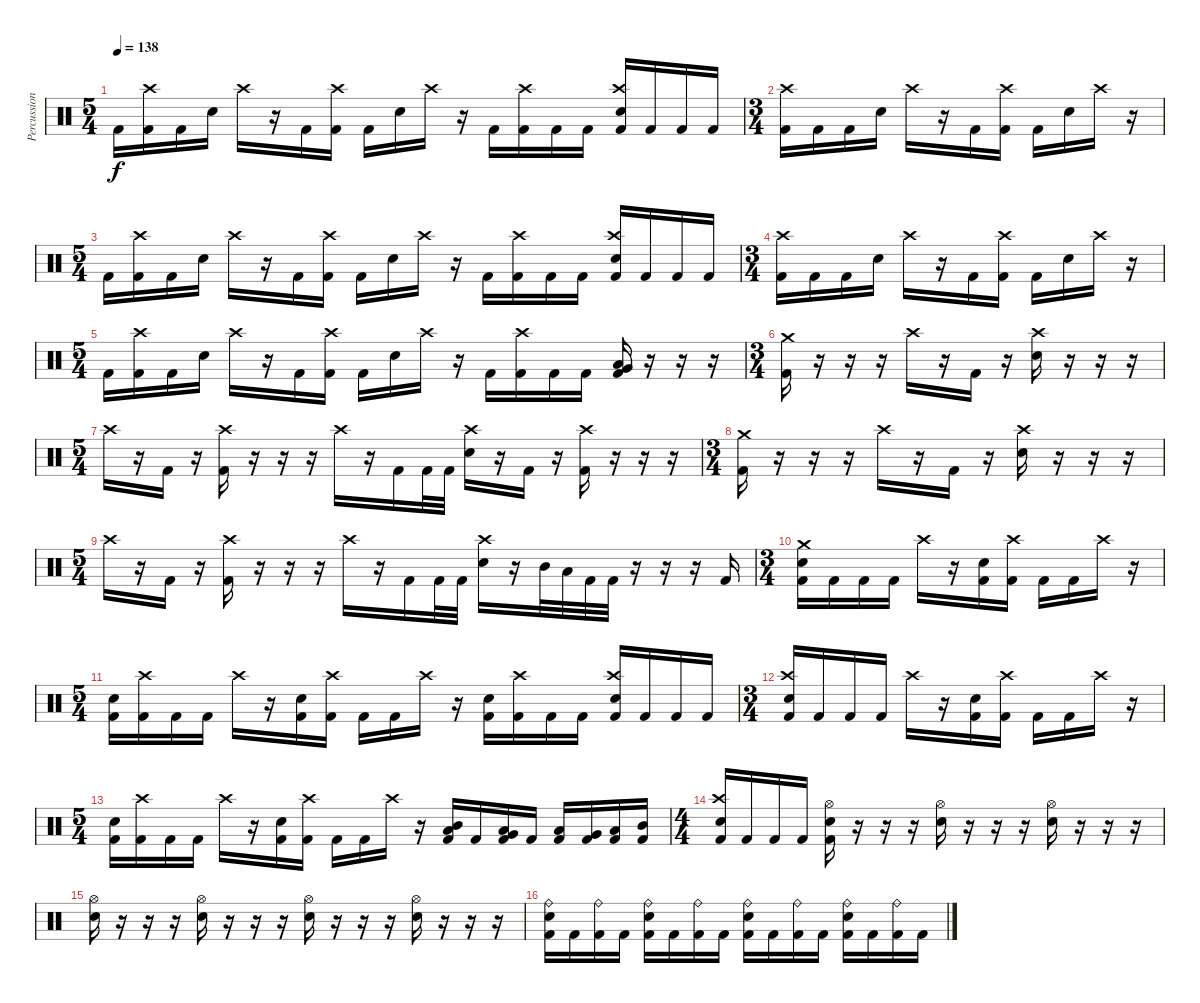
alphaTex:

\track ("Percussion" "Percussion") {instrument percussion}
\staff {score}
\articulation defaults
\ts (5 4)
\tempo 138
\clef neutral
\ks c "Kick (hit) 2".16{dy f}
("Crash high (hit)" "Kick (hit) 2").16 "Kick (hit) 2".16 "Electric Snare (hit)".16 "Crash high (hit)".16 r.16 "Kick (hit) 2".16 ("Crash high (hit)" "Kick (hit) 2").16 "Kick (hit) 2".16 "Electric Snare (hit)".16 "Crash high (hit)".16 r.16 "Kick (hit) 2".16 ("Crash high (hit)" "Kick (hit) 2").16 "Kick (hit) 2".16 "Kick (hit) 2".16 ("Crash high (hit)" "Electric Snare (hit)" "Kick (hit) 2").16 "Kick (hit) 2".16 "Kick (hit) 2".16 "Kick (hit) 2".16 |
\ts (3 4)
("Crash high (hit)" "Kick (hit) 2").16 "Kick (hit) 2".16 "Kick (hit) 2".16 "Electric Snare (hit)".16 "Crash high (hit)".16 r.16 "Kick (hit) 2".16 ("Crash high (hit)" "Kick (hit) 2").16 "Kick (hit) 2".16 "Electric Snare (hit)".16 "Crash high (hit)".16 r.16 |
\ts (5 4)
"Kick (hit) 2".16 ("Crash high (hit)" "Kick (hit) 2").16 "Kick (hit) 2".16 "Electric Snare (hit)".16 "Crash high (hit)".16 r.16 "Kick (hit) 2".16 ("Crash high (hit)" "Kick (hit) 2").16 "Kick (hit) 2".16 "Electric Snare (hit)".16 "Crash high (hit)".16 r.16 "Kick (hit) 2".16 ("Crash high (hit)" "Kick (hit) 2").16 "Kick (hit) 2".16 "Kick (hit) 2".16 ("Crash high (hit)" "Electric Snare (hit)" "Kick (hit) 2").16 "Kick (hit) 2".16 "Kick (hit) 2".16 "Kick (hit) 2".16 |
\ts (3 4)
("Crash high (hit)" "Kick (hit) 2").16 "Kick (hit) 2".16 "Kick (hit) 2".16 "Electric Snare (hit)".16 "Crash high (hit)".16 r.16 "Kick (hit) 2".16 ("Crash high (hit)" "Kick (hit) 2").16 "Kick (hit) 2".16 "Electric Snare (hit)".16 "Crash high (hit)".16 r.16 |
\ts (5 4)
"Kick (hit) 2".16 ("Crash high (hit)" "Kick (hit) 2").16 "Kick (hit) 2".16 "Electric Snare (hit)".16 "Crash high (hit)".16 r.16 "Kick (hit) 2".16 ("Crash high (hit)" "Kick (hit) 2").16 "Kick (hit) 2".16 "Electric Snare (hit)".16 "Crash high (hit)".16 r.16 "Kick (hit) 2".16 ("Crash high (hit)" "Kick (hit) 2").16 "Kick (hit) 2".16 "Kick (hit) 2".16 ("Very Low Tom (hit)" "Low Floor Tom (hit)" "Kick (hit) 2").16 r.16 r.16 r.16 |
\ts (3 4)
("Crash medium (hit)" "Kick (hit) 2").16 r.16 r.16 r.16 "Crash high (hit)".16 r.16 "Kick (hit) 2".16 r.16 ("Crash high (hit)" "Electric Snare (hit)").16 r.16 r.16 r.16 |
\ts (5 4)
"Crash high (hit)".16 r.16 "Kick (hit) 2".16 r.16 ("Crash high (hit)" "Kick (hit) 2").16 r.16 r.16 r.16 "Crash high (hit)".16 r.16 "Kick (hit) 2".16 "Kick (hit) 2".32 "Kick (hit) 2".32 ("Crash high (hit)" "Electric Snare (hit)").16 r.16 "Kick (hit) 2".16 r.16 ("Crash high (hit)" "Kick (hit) 2").16 r.16 r.16 r.16 |
\ts (3 4)
("Crash medium (hit)" "Kick (hit) 2").16 r.16 r.16 r.16 "Crash high (hit)".16 r.16 "Kick (hit) 2".16 r.16 ("Crash high (hit)" "Electric Snare (hit)").16 r.16 r.16 r.16 |
\ts (5 4)
"Crash high (hit)".16 r.16 "Kick (hit) 2".16 r.16 ("Crash high (hit)" "Kick (hit) 2").16 r.16 r.16 r.16 "Crash high (hit)".16 r.16 "Kick (hit) 2".16 "Kick (hit) 2".32 "Kick (hit) 2".32 ("Crash high (hit)" "Electric Snare (hit)").16 r.16 "Mid Tom (hit)".32 "Low Tom (hit)".32 "Kick (hit) 2".32 "Kick (hit) 2".32 r.16 r.16 r.16 "Kick (hit) 2".16 |
\ts (3 4)
("Crash medium (hit)" "Electric Snare (hit)" "Kick (hit) 2").16 "Kick (hit) 2".16 "Kick (hit) 2".16 "Kick (hit) 2".16 "Crash high (hit)".16 r.16 ("Electric Snare (hit)" "Kick (hit) 2").16 ("Crash high (hit)" "Kick (hit) 2").16 "Kick (hit) 2".16 "Kick (hit) 2".16 "Crash high (hit)".16 r.16 |
\ts (5 4)
("Electric Snare (hit)" "Kick (hit) 2").16 ("Crash high (hit)" "Kick (hit) 2").16 "Kick (hit) 2".16 "Kick (hit) 2".16 "Crash high (hit)".16 r.16 ("Electric Snare (hit)" "Kick (hit) 2").16 ("Crash high (hit)" "Kick (hit) 2").16 "Kick (hit) 2".16 "Kick (hit) 2".16 "Crash high (hit)".16 r.16 ("Electric Snare (hit)" "Kick (hit) 2").16 ("Crash high (hit)" "Kick (hit) 2").16 "Kick (hit) 2".16 "Kick (hit) 2".16 ("Crash high (hit)" "Electric Snare (hit)" "Kick (hit) 2").16 "Kick (hit) 2".16 "Kick (hit) 2".16 "Kick (hit) 2".16 |
\ts (3 4)
("Crash high (hit)" "Electric Snare (hit)" "Kick (hit) 2").16 "Kick (hit) 2".16 "Kick (hit) 2".16 "Kick (hit) 2".16 "Crash high (hit)".16 r.16 ("Electric Snare (hit)" "Kick (hit) 2").16 ("Crash high (hit)" "Kick (hit) 2").16 "Kick (hit) 2".16 "Kick (hit) 2".16 "Crash high (hit)".16 r.16 |
\ts (5 4)
("Electric Snare (hit)" "Kick (hit) 2").16 ("Crash high (hit)" "Kick (hit) 2").16 "Kick (hit) 2".16 "Kick (hit) 2".16 "Crash high (hit)".16 r.16 ("Electric Snare (hit)" "Kick (hit) 2").16 ("Crash high (hit)" "Kick (hit) 2").16 "Kick (hit) 2".16 "Kick (hit) 2".16 "Crash high (hit)".16 r.16 ("Mid Tom (hit)" "Low Tom (hit)" "Kick (hit) 2").16 "Kick (hit) 2".16 ("Low Tom (hit)" "Very Low Tom (hit)" "Kick (hit) 2").16 "Kick (hit) 2".16 ("Low Floor Tom (hit)" "Kick (hit) 2").16 ("Very Low Tom (hit)" "Kick (hit) 2").16 ("Low Tom (hit)" "Kick (hit) 2").16 ("Mid Tom (hit)" "Kick (hit) 2").16 |
\ts (4 4)
("Crash high (hit)" "Electric Snare (hit)" "Kick (hit) 2").16 "Kick (hit) 2".16 "Kick (hit) 2".16 "Kick (hit) 2".16 ("Hi-Hat (open)" "Electric Snare (hit)" "Kick (hit) 2").16 r.16 r.16 r.16 ("Hi-Hat (open)" "Electric Snare (hit)").16 r.16 r.16 r.16 ("Hi-Hat (open)" "Electric Snare (hit)").16 r.16 r.16 r.16 |
("Hi-Hat (open)" "Electric Snare (hit)").16 r.16 r.16 r.16 ("Hi-Hat (open)" "Electric Snare (hit)").16 r.16 r.16 r.16 ("Hi-Hat (open)" "Electric Snare (hit)").16 r.16 r.16 r.16 ("Hi-Hat (open)" "Electric Snare (hit)").16 r.16 r.16 r.16 |
("Ride (bell)" "Electric Snare (hit)" "Kick (hit) 2").16 "Kick (hit) 2".16 ("Ride (bell)" "Kick (hit) 2").16 "Kick (hit) 2".16 ("Ride (bell)" "Electric Snare (hit)" "Kick (hit) 2").16 "Kick (hit) 2".16 ("Ride (bell)" "Kick (hit) 2").16 "Kick (hit) 2".16 ("Ride (bell)" "Electric Snare (hit)" "Kick (hit) 2").16 "Kick (hit) 2".16 ("Ride (bell)" "Kick (hit) 2").16 "Kick (hit) 2".16 ("Ride (bell)" "Electric Snare (hit)" "Kick (hit) 2").16 "Kick (hit) 2".16 ("Ride (bell)" "Kick (hit) 2").16 "Kick (hit) 2".16
